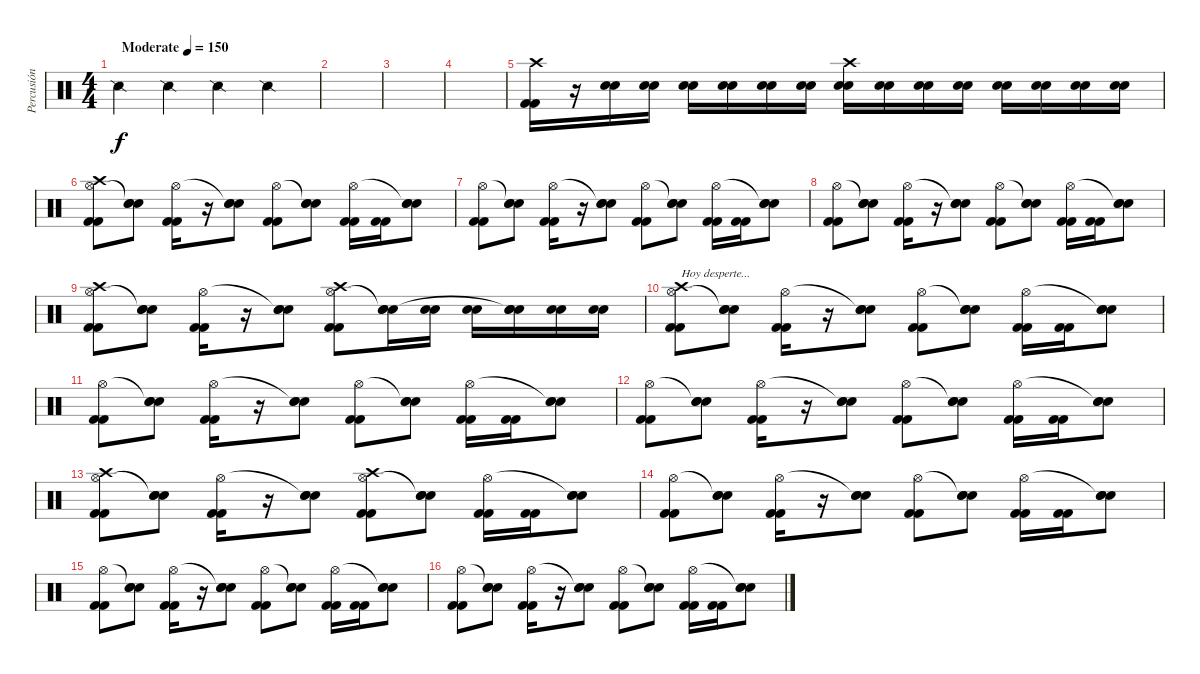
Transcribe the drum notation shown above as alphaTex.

\track ("Percusión" "Percusión") {instrument percussion}
\staff {score}
\articulation defaults
\ts (4 4)
\tempo (150 "Moderate")
\clef neutral
\ks c "Snare (side stick) 2".4{dy f} "Snare (side stick) 2".4 "Snare (side stick) 2".4 "Snare (side stick) 2".4
|
|
|
|
("Kick (hit) 2" "Kick (hit) 2" "Crash high (hit)").16 r.16 ("Snare (hit) 2" "Snare (hit) 2").16 ("Snare (hit) 2" "Snare (hit) 2").16 ("Snare (hit) 2" "Snare (hit) 2").16 ("Snare (hit) 2" "Snare (hit) 2").16 ("Snare (hit) 2" "Snare (hit) 2").16 ("Snare (hit) 2" "Snare (hit) 2").16 ("Snare (hit) 2" "Snare (hit) 2" "Crash high (hit)").16 ("Snare (hit) 2" "Snare (hit) 2").16 ("Snare (hit) 2" "Snare (hit) 2").16 ("Snare (hit) 2" "Snare (hit) 2").16 ("Snare (hit) 2" "Snare (hit) 2").16 ("Snare (hit) 2" "Snare (hit) 2").16 ("Snare (hit) 2" "Snare (hit) 2").16 ("Snare (hit) 2" "Snare (hit) 2").16 |
("Kick (hit) 2" "Kick (hit) 2" "Hi-Hat (open)" "Crash high (hit)").8 ("Snare (hit) 2" "Snare (hit) 2" "Snare (hit)"{t}).8 ("Kick (hit) 2" "Kick (hit) 2" "Hi-Hat (open)").16 r.16 ("Snare (hit) 2" "Snare (hit) 2" "Snare (hit)"{t}).8 ("Kick (hit) 2" "Kick (hit) 2" "Hi-Hat (open)").8 ("Snare (hit) 2" "Snare (hit) 2" "Snare (hit)"{t}).8 ("Kick (hit) 2" "Kick (hit) 2" "Hi-Hat (open)").16 ("Kick (hit) 2" "Kick (hit) 2").16 ("Snare (hit) 2" "Snare (hit) 2" "Snare (hit)"{t}).8 |
("Kick (hit) 2" "Kick (hit) 2" "Hi-Hat (open)").8 ("Snare (hit) 2" "Snare (hit) 2" "Snare (hit)"{t}).8 ("Kick (hit) 2" "Kick (hit) 2" "Hi-Hat (open)").16 r.16 ("Snare (hit) 2" "Snare (hit) 2" "Snare (hit)"{t}).8 ("Kick (hit) 2" "Kick (hit) 2" "Hi-Hat (open)").8 ("Snare (hit) 2" "Snare (hit) 2" "Snare (hit)"{t}).8 ("Kick (hit) 2" "Kick (hit) 2" "Hi-Hat (open)").16 ("Kick (hit) 2" "Kick (hit) 2").16 ("Snare (hit) 2" "Snare (hit) 2" "Snare (hit)"{t}).8 |
("Kick (hit) 2" "Kick (hit) 2" "Hi-Hat (open)").8 ("Snare (hit) 2" "Snare (hit) 2" "Snare (hit)"{t}).8 ("Kick (hit) 2" "Kick (hit) 2" "Hi-Hat (open)").16 r.16 ("Snare (hit) 2" "Snare (hit) 2" "Snare (hit)"{t}).8 ("Kick (hit) 2" "Kick (hit) 2" "Hi-Hat (open)").8 ("Snare (hit) 2" "Snare (hit) 2" "Snare (hit)"{t}).8 ("Kick (hit) 2" "Kick (hit) 2" "Hi-Hat (open)").16 ("Kick (hit) 2" "Kick (hit) 2").16 ("Snare (hit) 2" "Snare (hit) 2" "Snare (hit)"{t}).8 |
("Kick (hit) 2" "Kick (hit) 2" "Hi-Hat (open)" "Crash high (hit)").8 ("Snare (hit) 2" "Snare (hit) 2" "Snare (hit)"{t}).8 ("Kick (hit) 2" "Kick (hit) 2" "Hi-Hat (open)").16 r.16 ("Snare (hit) 2" "Snare (hit) 2" "Snare (hit)"{t}).8 ("Kick (hit) 2" "Kick (hit) 2" "Hi-Hat (open)" "Crash high (hit)").8 ("Snare (hit) 2" "Snare (hit) 2" "Snare (hit)"{t}).16 ("Snare (hit) 2" "Snare (hit) 2").16 ("Snare (hit) 2" "Snare (hit) 2").16 ("Snare (hit) 2" "Snare (hit) 2" "Snare (hit)"{t}).16 ("Snare (hit) 2" "Snare (hit) 2").16 ("Snare (hit) 2" "Snare (hit) 2").16 |
("Kick (hit) 2" "Kick (hit) 2" "Hi-Hat (open)" "Crash high (hit)").8{txt "Hoy desperte..."} ("Snare (hit) 2" "Snare (hit) 2" "Snare (hit)"{t}).8 ("Kick (hit) 2" "Kick (hit) 2" "Hi-Hat (open)").16 r.16 ("Snare (hit) 2" "Snare (hit) 2" "Snare (hit)"{t}).8 ("Kick (hit) 2" "Kick (hit) 2" "Hi-Hat (open)").8 ("Snare (hit) 2" "Snare (hit) 2" "Snare (hit)"{t}).8 ("Kick (hit) 2" "Kick (hit) 2" "Hi-Hat (open)").16 ("Kick (hit) 2" "Kick (hit) 2").16 ("Snare (hit) 2" "Snare (hit) 2" "Snare (hit)"{t}).8 |
("Kick (hit) 2" "Kick (hit) 2" "Hi-Hat (open)").8 ("Snare (hit) 2" "Snare (hit) 2" "Snare (hit)"{t}).8 ("Kick (hit) 2" "Kick (hit) 2" "Hi-Hat (open)").16 r.16 ("Snare (hit) 2" "Snare (hit) 2" "Snare (hit)"{t}).8 ("Kick (hit) 2" "Kick (hit) 2" "Hi-Hat (open)").8 ("Snare (hit) 2" "Snare (hit) 2" "Snare (hit)"{t}).8 ("Kick (hit) 2" "Kick (hit) 2" "Hi-Hat (open)").16 ("Kick (hit) 2" "Kick (hit) 2").16 ("Snare (hit) 2" "Snare (hit) 2" "Snare (hit)"{t}).8 |
("Kick (hit) 2" "Kick (hit) 2" "Hi-Hat (open)").8 ("Snare (hit) 2" "Snare (hit) 2" "Snare (hit)"{t}).8 ("Kick (hit) 2" "Kick (hit) 2" "Hi-Hat (open)").16 r.16 ("Snare (hit) 2" "Snare (hit) 2" "Snare (hit)"{t}).8 ("Kick (hit) 2" "Kick (hit) 2" "Hi-Hat (open)").8 ("Snare (hit) 2" "Snare (hit) 2" "Snare (hit)"{t}).8 ("Kick (hit) 2" "Kick (hit) 2" "Hi-Hat (open)").16 ("Kick (hit) 2" "Kick (hit) 2").16 ("Snare (hit) 2" "Snare (hit) 2" "Snare (hit)"{t}).8 |
("Kick (hit) 2" "Kick (hit) 2" "Hi-Hat (open)" "Crash high (hit)").8 ("Snare (hit) 2" "Snare (hit) 2" "Snare (hit)"{t}).8 ("Kick (hit) 2" "Kick (hit) 2" "Hi-Hat (open)").16 r.16 ("Snare (hit) 2" "Snare (hit) 2" "Snare (hit)"{t}).8 ("Kick (hit) 2" "Kick (hit) 2" "Hi-Hat (open)" "Crash high (hit)").8 ("Snare (hit) 2" "Snare (hit) 2" "Snare (hit)"{t}).8 ("Kick (hit) 2" "Kick (hit) 2" "Hi-Hat (open)").16 ("Kick (hit) 2" "Kick (hit) 2").16 ("Snare (hit) 2" "Snare (hit) 2" "Snare (hit)"{t}).8 |
("Kick (hit) 2" "Kick (hit) 2" "Hi-Hat (open)").8 ("Snare (hit) 2" "Snare (hit) 2" "Snare (hit)"{t}).8 ("Kick (hit) 2" "Kick (hit) 2" "Hi-Hat (open)").16 r.16 ("Snare (hit) 2" "Snare (hit) 2" "Snare (hit)"{t}).8 ("Kick (hit) 2" "Kick (hit) 2" "Hi-Hat (open)").8 ("Snare (hit) 2" "Snare (hit) 2" "Snare (hit)"{t}).8 ("Kick (hit) 2" "Kick (hit) 2" "Hi-Hat (open)").16 ("Kick (hit) 2" "Kick (hit) 2").16 ("Snare (hit) 2" "Snare (hit) 2" "Snare (hit)"{t}).8 |
("Kick (hit) 2" "Kick (hit) 2" "Hi-Hat (open)").8 ("Snare (hit) 2" "Snare (hit) 2" "Snare (hit)"{t}).8 ("Kick (hit) 2" "Kick (hit) 2" "Hi-Hat (open)").16 r.16 ("Snare (hit) 2" "Snare (hit) 2" "Snare (hit)"{t}).8 ("Kick (hit) 2" "Kick (hit) 2" "Hi-Hat (open)").8 ("Snare (hit) 2" "Snare (hit) 2" "Snare (hit)"{t}).8 ("Kick (hit) 2" "Kick (hit) 2" "Hi-Hat (open)").16 ("Kick (hit) 2" "Kick (hit) 2").16 ("Snare (hit) 2" "Snare (hit) 2" "Snare (hit)"{t}).8 |
("Kick (hit) 2" "Kick (hit) 2" "Hi-Hat (open)").8 ("Snare (hit) 2" "Snare (hit) 2" "Snare (hit)"{t}).8 ("Kick (hit) 2" "Kick (hit) 2" "Hi-Hat (open)").16 r.16 ("Snare (hit) 2" "Snare (hit) 2" "Snare (hit)"{t}).8 ("Kick (hit) 2" "Kick (hit) 2" "Hi-Hat (open)").8 ("Snare (hit) 2" "Snare (hit) 2" "Snare (hit)"{t}).8 ("Kick (hit) 2" "Kick (hit) 2" "Hi-Hat (open)").16 ("Kick (hit) 2" "Kick (hit) 2").16 ("Snare (hit) 2" "Snare (hit) 2" "Snare (hit)"{t}).8
